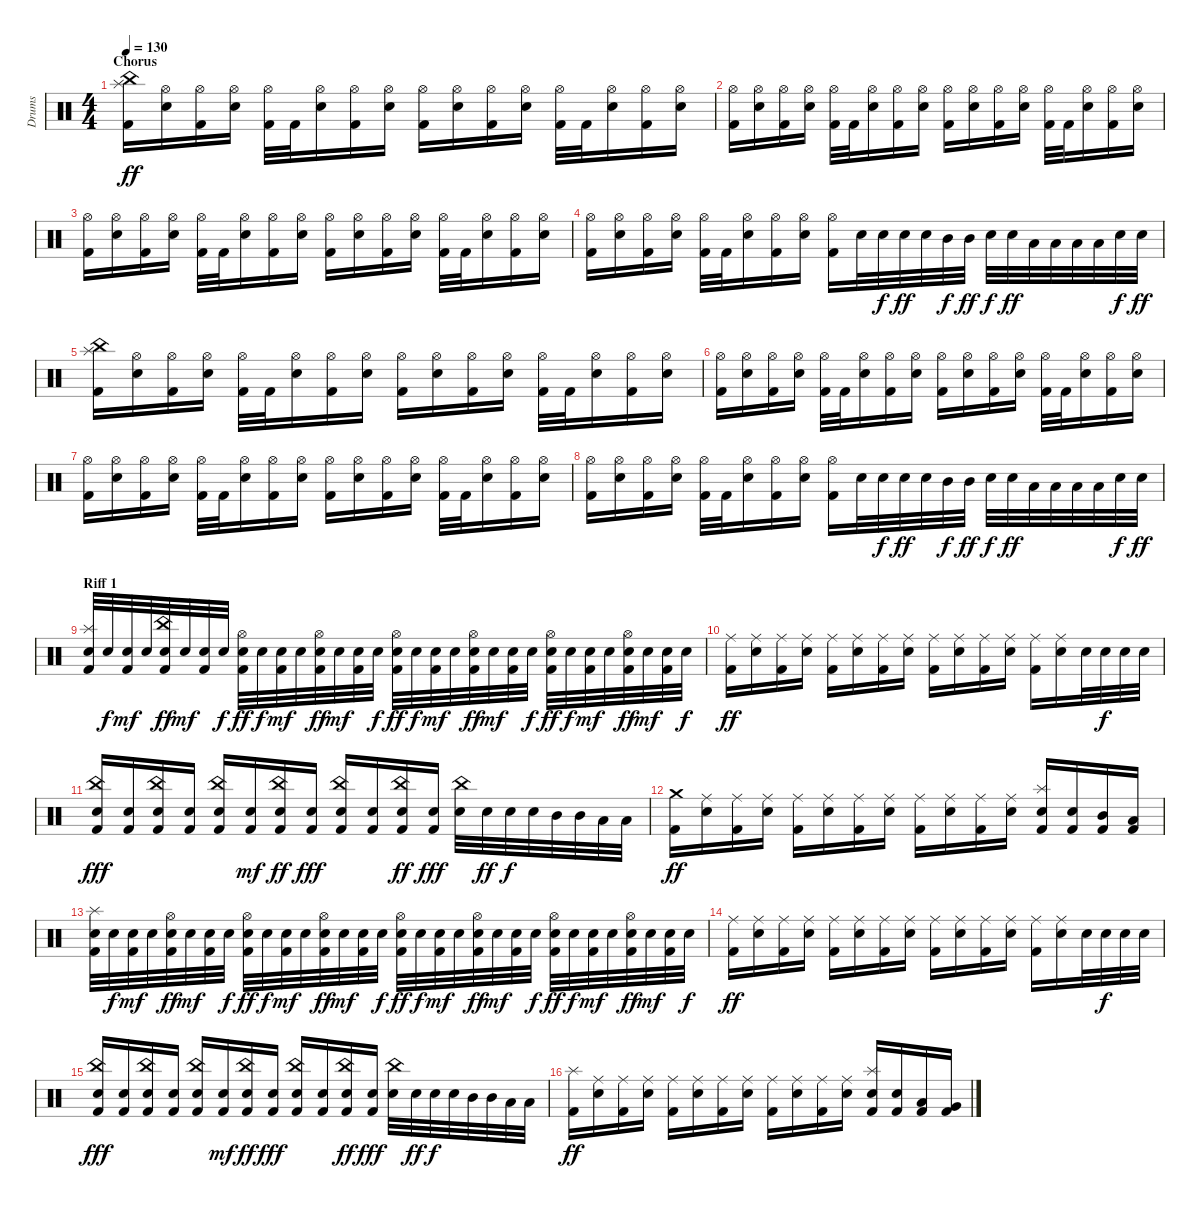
\track ("Drums" "Drums") {instrument percussion}
\staff {score}
\articulation defaults
\ts (4 4)
\section ("" "Chorus")
\tempo 130
\clef neutral
\ks c
("Kick (hit) 2" "Splash (hit)" "China (hit)").16{dy ff} ("Snare (hit) 2" "Hi-Hat (open)").16 ("Kick (hit) 2" "Hi-Hat (open)").16 ("Snare (hit) 2" "Hi-Hat (open)").16 ("Kick (hit) 2" "Hi-Hat (open)").32 "Kick (hit) 2".32 ("Electric Snare (hit)" "Hi-Hat (open)").16 ("Kick (hit) 2" "Hi-Hat (open)").16 ("Snare (hit) 2" "Hi-Hat (open)").16 ("Kick (hit) 2" "Hi-Hat (open)").16 ("Snare (hit) 2" "Hi-Hat (open)").16 ("Kick (hit) 2" "Hi-Hat (open)").16 ("Snare (hit) 2" "Hi-Hat (open)").16 ("Kick (hit) 2" "Hi-Hat (open)").32 "Kick (hit) 2".32 ("Electric Snare (hit)" "Hi-Hat (open)").16 ("Kick (hit) 2" "Hi-Hat (open)").16 ("Snare (hit) 2" "Hi-Hat (open)").16 |
("Kick (hit) 2" "Hi-Hat (open)").16 ("Snare (hit) 2" "Hi-Hat (open)").16 ("Kick (hit) 2" "Hi-Hat (open)").16 ("Snare (hit) 2" "Hi-Hat (open)").16 ("Kick (hit) 2" "Hi-Hat (open)").32 "Kick (hit) 2".32 ("Snare (hit) 2" "Hi-Hat (open)").16 ("Kick (hit) 2" "Hi-Hat (open)").16 ("Snare (hit) 2" "Hi-Hat (open)").16 ("Kick (hit) 2" "Hi-Hat (open)").16 ("Snare (hit) 2" "Hi-Hat (open)").16 ("Kick (hit) 2" "Hi-Hat (open)").16 ("Snare (hit) 2" "Hi-Hat (open)").16 ("Kick (hit) 2" "Hi-Hat (open)").32 "Kick (hit) 2".32 ("Snare (hit) 2" "Hi-Hat (open)").16 ("Kick (hit) 2" "Hi-Hat (open)").16 ("Snare (hit) 2" "Hi-Hat (open)").16 |
("Kick (hit) 2" "Hi-Hat (open)").16 ("Snare (hit) 2" "Hi-Hat (open)").16 ("Kick (hit) 2" "Hi-Hat (open)").16 ("Snare (hit) 2" "Hi-Hat (open)").16 ("Kick (hit) 2" "Hi-Hat (open)").32 "Kick (hit) 2".32 ("Snare (hit) 2" "Hi-Hat (open)").16 ("Kick (hit) 2" "Hi-Hat (open)").16 ("Snare (hit) 2" "Hi-Hat (open)").16 ("Kick (hit) 2" "Hi-Hat (open)").16 ("Snare (hit) 2" "Hi-Hat (open)").16 ("Kick (hit) 2" "Hi-Hat (open)").16 ("Snare (hit) 2" "Hi-Hat (open)").16 ("Kick (hit) 2" "Hi-Hat (open)").32 "Kick (hit) 2".32 ("Snare (hit) 2" "Hi-Hat (open)").16 ("Kick (hit) 2" "Hi-Hat (open)").16 ("Snare (hit) 2" "Hi-Hat (open)").16 |
("Kick (hit) 2" "Hi-Hat (open)").16 ("Snare (hit) 2" "Hi-Hat (open)").16 ("Kick (hit) 2" "Hi-Hat (open)").16 ("Snare (hit) 2" "Hi-Hat (open)").16 ("Kick (hit) 2" "Hi-Hat (open)").32 "Kick (hit) 2".32 ("Electric Snare (hit)" "Hi-Hat (open)").16 ("Kick (hit) 2" "Hi-Hat (open)").16 ("Snare (hit) 2" "Hi-Hat (open)").16 ("Kick (hit) 2" "Hi-Hat (open)").16 "Snare (hit) 2".32 "Snare (hit) 2".32{dy f} "Snare (hit) 2".32{dy ff} "Snare (hit) 2".32 "Mid Tom (hit)".32{dy f} "Mid Tom (hit)".32{dy ff} "Snare (hit) 2".32{dy f} "Snare (hit) 2".32{dy ff} "Low Tom (hit)".32 "Low Tom (hit)".32 "Low Tom (hit)".32 "Low Tom (hit)".32 "Snare (hit) 2".32{dy f} "Snare (hit) 2".32{dy ff} |
("Kick (hit) 2" "Splash (hit)" "China (hit)").16 ("Snare (hit) 2" "Hi-Hat (open)").16 ("Kick (hit) 2" "Hi-Hat (open)").16 ("Snare (hit) 2" "Hi-Hat (open)").16 ("Kick (hit) 2" "Hi-Hat (open)").32 "Kick (hit) 2".32 ("Electric Snare (hit)" "Hi-Hat (open)").16 ("Kick (hit) 2" "Hi-Hat (open)").16 ("Snare (hit) 2" "Hi-Hat (open)").16 ("Kick (hit) 2" "Hi-Hat (open)").16 ("Snare (hit) 2" "Hi-Hat (open)").16 ("Kick (hit) 2" "Hi-Hat (open)").16 ("Snare (hit) 2" "Hi-Hat (open)").16 ("Kick (hit) 2" "Hi-Hat (open)").32 "Kick (hit) 2".32 ("Electric Snare (hit)" "Hi-Hat (open)").16 ("Kick (hit) 2" "Hi-Hat (open)").16 ("Snare (hit) 2" "Hi-Hat (open)").16 |
("Kick (hit) 2" "Hi-Hat (open)").16 ("Snare (hit) 2" "Hi-Hat (open)").16 ("Kick (hit) 2" "Hi-Hat (open)").16 ("Snare (hit) 2" "Hi-Hat (open)").16 ("Kick (hit) 2" "Hi-Hat (open)").32 "Kick (hit) 2".32 ("Snare (hit) 2" "Hi-Hat (open)").16 ("Kick (hit) 2" "Hi-Hat (open)").16 ("Snare (hit) 2" "Hi-Hat (open)").16 ("Kick (hit) 2" "Hi-Hat (open)").16 ("Snare (hit) 2" "Hi-Hat (open)").16 ("Kick (hit) 2" "Hi-Hat (open)").16 ("Snare (hit) 2" "Hi-Hat (open)").16 ("Kick (hit) 2" "Hi-Hat (open)").32 "Kick (hit) 2".32 ("Snare (hit) 2" "Hi-Hat (open)").16 ("Kick (hit) 2" "Hi-Hat (open)").16 ("Snare (hit) 2" "Hi-Hat (open)").16 |
("Kick (hit) 2" "Hi-Hat (open)").16 ("Snare (hit) 2" "Hi-Hat (open)").16 ("Kick (hit) 2" "Hi-Hat (open)").16 ("Snare (hit) 2" "Hi-Hat (open)").16 ("Kick (hit) 2" "Hi-Hat (open)").32 "Kick (hit) 2".32 ("Snare (hit) 2" "Hi-Hat (open)").16 ("Kick (hit) 2" "Hi-Hat (open)").16 ("Snare (hit) 2" "Hi-Hat (open)").16 ("Kick (hit) 2" "Hi-Hat (open)").16 ("Snare (hit) 2" "Hi-Hat (open)").16 ("Kick (hit) 2" "Hi-Hat (open)").16 ("Snare (hit) 2" "Hi-Hat (open)").16 ("Kick (hit) 2" "Hi-Hat (open)").32 "Kick (hit) 2".32 ("Snare (hit) 2" "Hi-Hat (open)").16 ("Kick (hit) 2" "Hi-Hat (open)").16 ("Snare (hit) 2" "Hi-Hat (open)").16 |
("Kick (hit) 2" "Hi-Hat (open)").16 ("Snare (hit) 2" "Hi-Hat (open)").16 ("Kick (hit) 2" "Hi-Hat (open)").16 ("Snare (hit) 2" "Hi-Hat (open)").16 ("Kick (hit) 2" "Hi-Hat (open)").32 "Kick (hit) 2".32 ("Electric Snare (hit)" "Hi-Hat (open)").16 ("Kick (hit) 2" "Hi-Hat (open)").16 ("Snare (hit) 2" "Hi-Hat (open)").16 ("Kick (hit) 2" "Hi-Hat (open)").16 "Snare (hit) 2".32 "Snare (hit) 2".32{dy f} "Snare (hit) 2".32{dy ff} "Snare (hit) 2".32 "Mid Tom (hit)".32{dy f} "Mid Tom (hit)".32{dy ff} "Snare (hit) 2".32{dy f} "Snare (hit) 2".32{dy ff} "Low Tom (hit)".32 "Low Tom (hit)".32 "Low Tom (hit)".32 "Low Tom (hit)".32 "Snare (hit) 2".32{dy f} "Snare (hit) 2".32{dy ff} |
\section ("" "Riff 1")
("Kick (hit) 2" "Snare (hit) 2" "Splash (hit)").32 "Snare (hit) 2".32{dy f} ("Kick (hit) 2" "Snare (hit) 2").32{dy mf} "Snare (hit) 2".32 ("Kick (hit) 2" "Snare (hit) 2" "China (hit)").32{dy ff} "Snare (hit) 2".32{dy mf} ("Kick (hit) 2" "Snare (hit) 2").32 "Snare (hit) 2".32{dy f} ("Kick (hit) 2" "Snare (hit) 2" "Hi-Hat (open)").32{dy ff} "Snare (hit) 2".32{dy f} ("Kick (hit) 2" "Snare (hit) 2").32{dy mf} "Snare (hit) 2".32 ("Kick (hit) 2" "Snare (hit) 2" "Hi-Hat (open)").32{dy ff} "Snare (hit) 2".32{dy mf} ("Kick (hit) 2" "Snare (hit) 2").32 "Snare (hit) 2".32{dy f} ("Kick (hit) 2" "Snare (hit) 2" "Hi-Hat (open)").32{dy ff} "Snare (hit) 2".32{dy f} ("Kick (hit) 2" "Snare (hit) 2").32{dy mf} "Snare (hit) 2".32 ("Kick (hit) 2" "Snare (hit) 2" "Hi-Hat (open)").32{dy ff} "Snare (hit) 2".32{dy mf} ("Kick (hit) 2" "Snare (hit) 2").32 "Snare (hit) 2".32{dy f} ("Kick (hit) 2" "Snare (hit) 2" "Hi-Hat (open)").32{dy ff} "Snare (hit) 2".32{dy f} ("Kick (hit) 2" "Snare (hit) 2").32{dy mf} "Snare (hit) 2".32 ("Kick (hit) 2" "Snare (hit) 2" "Hi-Hat (open)").32{dy ff} "Snare (hit) 2".32{dy mf} ("Kick (hit) 2" "Snare (hit) 2").32 "Snare (hit) 2".32{dy f} |
("Kick (hit) 2" "Ride (middle)").16{dy ff} ("Snare (hit) 2" "Ride (middle)").16 ("Kick (hit) 2" "Ride (middle)").16 ("Snare (hit) 2" "Ride (middle)").16 ("Kick (hit) 2" "Ride (middle)").16 ("Snare (hit) 2" "Ride (middle)").16 ("Kick (hit) 2" "Ride (middle)").16 ("Snare (hit) 2" "Ride (middle)").16 ("Kick (hit) 2" "Ride (middle)").16 ("Snare (hit) 2" "Ride (middle)").16 ("Kick (hit) 2" "Ride (middle)").16 ("Snare (hit) 2" "Ride (middle)").16 ("Kick (hit) 2" "Ride (middle)").16 ("Snare (hit) 2" "Ride (middle)").16 "Snare (hit) 2".32 "Snare (hit) 2".32{dy f} "Snare (hit) 2".32 "Snare (hit) 2".32 |
("Kick (hit) 2" "Snare (hit) 2" "China (hit)").16{dy fff} ("Kick (hit) 2" "Snare (hit) 2").16 ("Kick (hit) 2" "Snare (hit) 2" "China (hit)").16 ("Kick (hit) 2" "Snare (hit) 2").16 ("Kick (hit) 2" "Snare (hit) 2" "China (hit)").16 ("Kick (hit) 2" "Snare (hit) 2").16{dy mf} ("Kick (hit) 2" "Snare (hit) 2" "China (hit)").16{dy ff} ("Kick (hit) 2" "Snare (hit) 2").16{dy fff} ("Kick (hit) 2" "Snare (hit) 2" "China (hit)").16 ("Kick (hit) 2" "Snare (hit) 2").16 ("Kick (hit) 2" "Snare (hit) 2" "China (hit)").16{dy ff} ("Kick (hit) 2" "Snare (hit) 2").16{dy fff} ("Snare (hit) 2" "China (hit)").32 "Snare (hit) 2".32{dy ff} "Snare (hit) 2".32{dy f} "Snare (hit) 2".32 "Mid Tom (hit)".32 "Mid Tom (hit)".32 "Low Tom (hit)".32 "Low Tom (hit)".32 |
("Kick (hit) 2" "Crash medium (hit)").16{dy ff} ("Snare (hit) 2" "Ride (middle)").16 ("Kick (hit) 2" "Ride (middle)").16 ("Snare (hit) 2" "Ride (middle)").16 ("Kick (hit) 2" "Ride (middle)").16 ("Snare (hit) 2" "Ride (middle)").16 ("Kick (hit) 2" "Ride (middle)").16 ("Snare (hit) 2" "Ride (middle)").16 ("Kick (hit) 2" "Ride (middle)").16 ("Snare (hit) 2" "Ride (middle)").16 ("Kick (hit) 2" "Ride (middle)").16 ("Snare (hit) 2" "Ride (middle)").16 ("Kick (hit) 2" "Snare (hit) 2" "Splash (hit)").16 ("Kick (hit) 2" "Snare (hit) 2").16 ("Kick (hit) 2" "Mid Tom (hit)").16 ("Kick (hit) 2" "Low Tom (hit)").16 |
("Kick (hit) 2" "Snare (hit) 2" "Splash (hit)").32 "Snare (hit) 2".32{dy f} ("Kick (hit) 2" "Snare (hit) 2").32{dy mf} "Snare (hit) 2".32 ("Kick (hit) 2" "Snare (hit) 2" "Hi-Hat (open)").32{dy ff} "Snare (hit) 2".32{dy mf} ("Kick (hit) 2" "Snare (hit) 2").32 "Snare (hit) 2".32{dy f} ("Kick (hit) 2" "Snare (hit) 2" "Hi-Hat (open)").32{dy ff} "Snare (hit) 2".32{dy f} ("Kick (hit) 2" "Snare (hit) 2").32{dy mf} "Snare (hit) 2".32 ("Kick (hit) 2" "Snare (hit) 2" "Hi-Hat (open)").32{dy ff} "Snare (hit) 2".32{dy mf} ("Kick (hit) 2" "Snare (hit) 2").32 "Snare (hit) 2".32{dy f} ("Kick (hit) 2" "Snare (hit) 2" "Hi-Hat (open)").32{dy ff} "Snare (hit) 2".32{dy f} ("Kick (hit) 2" "Snare (hit) 2").32{dy mf} "Snare (hit) 2".32 ("Kick (hit) 2" "Snare (hit) 2" "Hi-Hat (open)").32{dy ff} "Snare (hit) 2".32{dy mf} ("Kick (hit) 2" "Snare (hit) 2").32 "Snare (hit) 2".32{dy f} ("Kick (hit) 2" "Snare (hit) 2" "Hi-Hat (open)").32{dy ff} "Snare (hit) 2".32{dy f} ("Kick (hit) 2" "Snare (hit) 2").32{dy mf} "Snare (hit) 2".32 ("Kick (hit) 2" "Snare (hit) 2" "Hi-Hat (open)").32{dy ff} "Snare (hit) 2".32{dy mf} ("Kick (hit) 2" "Snare (hit) 2").32 "Snare (hit) 2".32{dy f} |
("Kick (hit) 2" "Ride (middle)").16{dy ff} ("Snare (hit) 2" "Ride (middle)").16 ("Kick (hit) 2" "Ride (middle)").16 ("Snare (hit) 2" "Ride (middle)").16 ("Kick (hit) 2" "Ride (middle)").16 ("Snare (hit) 2" "Ride (middle)").16 ("Kick (hit) 2" "Ride (middle)").16 ("Snare (hit) 2" "Ride (middle)").16 ("Kick (hit) 2" "Ride (middle)").16 ("Snare (hit) 2" "Ride (middle)").16 ("Kick (hit) 2" "Ride (middle)").16 ("Snare (hit) 2" "Ride (middle)").16 ("Kick (hit) 2" "Ride (middle)").16 ("Snare (hit) 2" "Ride (middle)").16 "Snare (hit) 2".32 "Snare (hit) 2".32{dy f} "Snare (hit) 2".32 "Snare (hit) 2".32 |
("Kick (hit) 2" "Snare (hit) 2" "China (hit)").16{dy fff} ("Kick (hit) 2" "Snare (hit) 2").16 ("Kick (hit) 2" "Snare (hit) 2" "China (hit)").16 ("Kick (hit) 2" "Snare (hit) 2").16 ("Kick (hit) 2" "Snare (hit) 2" "China (hit)").16 ("Kick (hit) 2" "Snare (hit) 2").16{dy mf} ("Kick (hit) 2" "Snare (hit) 2" "China (hit)").16{dy ff} ("Kick (hit) 2" "Snare (hit) 2").16{dy fff} ("Kick (hit) 2" "Snare (hit) 2" "China (hit)").16 ("Kick (hit) 2" "Snare (hit) 2").16 ("Kick (hit) 2" "Snare (hit) 2" "China (hit)").16{dy ff} ("Kick (hit) 2" "Snare (hit) 2").16{dy fff} ("Snare (hit) 2" "China (hit)").32 "Snare (hit) 2".32{dy ff} "Snare (hit) 2".32{dy f} "Snare (hit) 2".32 "Mid Tom (hit)".32 "Mid Tom (hit)".32 "Low Tom (hit)".32 "Low Tom (hit)".32 |
("Kick (hit) 2" "Splash (hit)").16{dy ff} ("Snare (hit) 2" "Ride (middle)").16 ("Kick (hit) 2" "Ride (middle)").16 ("Snare (hit) 2" "Ride (middle)").16 ("Kick (hit) 2" "Ride (middle)").16 ("Snare (hit) 2" "Ride (middle)").16 ("Kick (hit) 2" "Ride (middle)").16 ("Snare (hit) 2" "Ride (middle)").16 ("Kick (hit) 2" "Ride (middle)").16 ("Snare (hit) 2" "Ride (middle)").16 ("Kick (hit) 2" "Ride (middle)").16 ("Snare (hit) 2" "Ride (middle)").16 ("Kick (hit) 2" "Snare (hit) 2" "Splash (hit)").16 ("Kick (hit) 2" "Snare (hit) 2").16 ("Kick (hit) 2" "Low Tom (hit)").16 ("Kick (hit) 2" "Very Low Tom (hit)").16
